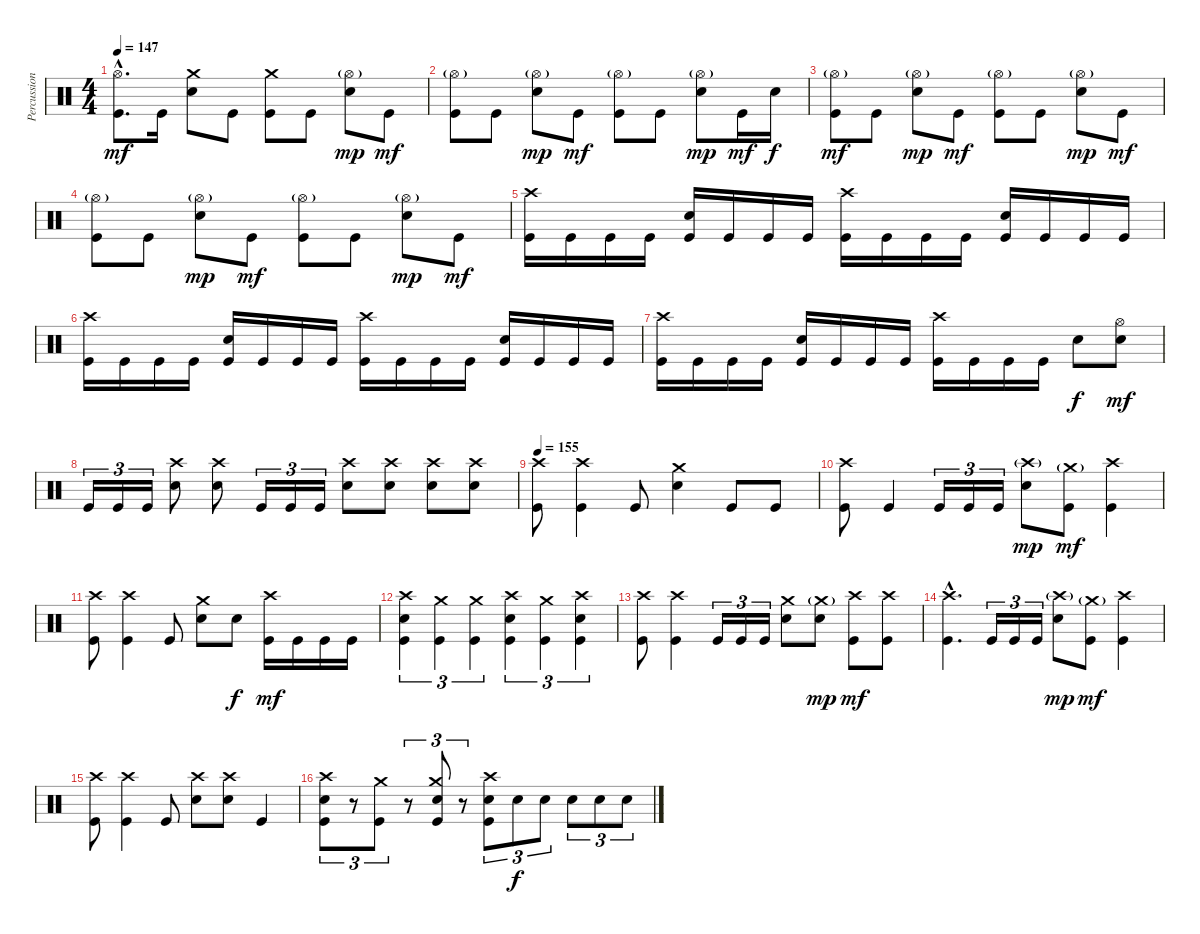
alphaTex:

\track ("Percussion" "Percussion") {instrument percussion}
\staff {score}
\articulation defaults
\ts (4 4)
\tempo 147
\clef neutral
\ks c
("Hi-Hat (open)"{hac} "Kick (hit)"{hac}).8{d dy mf} "Kick (hit)".16 ("Crash medium (hit)" "Electric Snare (hit)").8 "Kick (hit)".8 ("Crash medium (hit)" "Kick (hit)").8 "Kick (hit)".8 ("Hi-Hat (open)"{g} "Electric Snare (hit)").8{dy mp} "Kick (hit)".8{dy mf} |
("Hi-Hat (open)"{g} "Kick (hit)").8 "Kick (hit)".8 ("Hi-Hat (open)"{g} "Electric Snare (hit)").8{dy mp} "Kick (hit)".8{dy mf} ("Hi-Hat (open)"{g} "Kick (hit)").8 "Kick (hit)".8 ("Hi-Hat (open)"{g} "Electric Snare (hit)").8{dy mp} "Kick (hit)".16{dy mf} "Electric Snare (hit)".16{dy f} |
("Hi-Hat (open)"{g} "Kick (hit)").8{dy mf} "Kick (hit)".8 ("Hi-Hat (open)"{g} "Electric Snare (hit)").8{dy mp} "Kick (hit)".8{dy mf} ("Hi-Hat (open)"{g} "Kick (hit)").8 "Kick (hit)".8 ("Hi-Hat (open)"{g} "Electric Snare (hit)").8{dy mp} "Kick (hit)".8{dy mf} |
("Hi-Hat (open)"{g} "Kick (hit)").8 "Kick (hit)".8 ("Hi-Hat (open)"{g} "Electric Snare (hit)").8{dy mp} "Kick (hit)".8{dy mf} ("Hi-Hat (open)"{g} "Kick (hit)").8 "Kick (hit)".8 ("Hi-Hat (open)"{g} "Electric Snare (hit)").8{dy mp} "Kick (hit)".8{dy mf} |
("Crash high (hit)" "Kick (hit)").16 "Kick (hit)".16 "Kick (hit)".16 "Kick (hit)".16 ("Electric Snare (hit)" "Kick (hit)").16 "Kick (hit)".16 "Kick (hit)".16 "Kick (hit)".16 ("Crash high (hit)" "Kick (hit)").16 "Kick (hit)".16 "Kick (hit)".16 "Kick (hit)".16 ("Electric Snare (hit)" "Kick (hit)").16 "Kick (hit)".16 "Kick (hit)".16 "Kick (hit)".16 |
("Crash high (hit)" "Kick (hit)").16 "Kick (hit)".16 "Kick (hit)".16 "Kick (hit)".16 ("Electric Snare (hit)" "Kick (hit)").16 "Kick (hit)".16 "Kick (hit)".16 "Kick (hit)".16 ("Crash high (hit)" "Kick (hit)").16 "Kick (hit)".16 "Kick (hit)".16 "Kick (hit)".16 ("Electric Snare (hit)" "Kick (hit)").16 "Kick (hit)".16 "Kick (hit)".16 "Kick (hit)".16 |
("Crash high (hit)" "Kick (hit)").16 "Kick (hit)".16 "Kick (hit)".16 "Kick (hit)".16 ("Electric Snare (hit)" "Kick (hit)").16 "Kick (hit)".16 "Kick (hit)".16 "Kick (hit)".16 ("Crash high (hit)" "Kick (hit)").16 "Kick (hit)".16 "Kick (hit)".16 "Kick (hit)".16 "Electric Snare (hit)".8{dy f} ("Hi-Hat (open)" "Electric Snare (hit)").8{dy mf} |
"Kick (hit)".16{tu (3 2)} "Kick (hit)".16{tu (3 2)} "Kick (hit)".16{tu (3 2)} ("Crash high (hit)" "Electric Snare (hit)").8 ("Crash high (hit)" "Electric Snare (hit)").8 "Kick (hit)".16{tu (3 2)} "Kick (hit)".16{tu (3 2)} "Kick (hit)".16{tu (3 2)} ("Crash high (hit)" "Electric Snare (hit)").8 ("Crash high (hit)" "Electric Snare (hit)").8 ("Crash high (hit)" "Electric Snare (hit)").8 ("Crash high (hit)" "Electric Snare (hit)").8 |
\tempo 155
("Crash high (hit)" "Kick (hit)").8 ("Crash high (hit)" "Kick (hit)").4 "Kick (hit)".8 ("Crash medium (hit)" "Electric Snare (hit)").4 "Kick (hit)".8 "Kick (hit)".8 |
("Crash high (hit)" "Kick (hit)").8 "Kick (hit)".4 "Kick (hit)".16{tu (3 2)} "Kick (hit)".16{tu (3 2)} "Kick (hit)".16{tu (3 2)} ("Crash high (hit)"{g} "Electric Snare (hit)").8{dy mp} ("Crash medium (hit)"{g} "Kick (hit)").8{dy mf} ("Crash high (hit)" "Kick (hit)").4 |
("Crash high (hit)" "Kick (hit)").8 ("Crash high (hit)" "Kick (hit)").4 "Kick (hit)".8 ("Crash medium (hit)" "Electric Snare (hit)").8 "Electric Snare (hit)".8{dy f} ("Crash high (hit)" "Kick (hit)").16{dy mf} "Kick (hit)".16 "Kick (hit)".16 "Kick (hit)".16 |
("Crash high (hit)" "Electric Snare (hit)" "Kick (hit)").4{tu (3 2)} ("Crash medium (hit)" "Kick (hit)").4{tu (3 2)} ("Crash medium (hit)" "Kick (hit)").4{tu (3 2)} ("Crash high (hit)" "Electric Snare (hit)" "Kick (hit)").4{tu (3 2)} ("Crash medium (hit)" "Kick (hit)").4{tu (3 2)} ("Crash high (hit)" "Electric Snare (hit)" "Kick (hit)").4{tu (3 2)} |
("Crash high (hit)" "Kick (hit)").8 ("Crash high (hit)" "Kick (hit)").4 "Kick (hit)".16{tu (3 2)} "Kick (hit)".16{tu (3 2)} "Kick (hit)".16{tu (3 2)} ("Crash medium (hit)" "Electric Snare (hit)").8 ("Crash medium (hit)"{g} "Electric Snare (hit)").8{dy mp} ("Crash high (hit)" "Kick (hit)").8{dy mf} ("Crash high (hit)" "Kick (hit)").8 |
("Crash high (hit)"{hac} "Kick (hit)"{hac}).4{d} "Kick (hit)".16{tu (3 2)} "Kick (hit)".16{tu (3 2)} "Kick (hit)".16{tu (3 2)} ("Crash high (hit)"{g} "Electric Snare (hit)").8{dy mp} ("Crash medium (hit)"{g} "Kick (hit)").8{dy mf} ("Crash high (hit)" "Kick (hit)").4 |
("Crash high (hit)" "Kick (hit)").8 ("Crash high (hit)" "Kick (hit)").4 "Kick (hit)".8 ("Crash high (hit)" "Electric Snare (hit)").8 ("Crash high (hit)" "Electric Snare (hit)").8 "Kick (hit)".4 |
("Crash high (hit)" "Electric Snare (hit)" "Kick (hit)").8{tu (3 2)} r.8{tu (3 2)} ("Crash medium (hit)" "Kick (hit)").8{tu (3 2)} r.8{tu (3 2)} ("Crash medium (hit)" "Electric Snare (hit)" "Kick (hit)").8{tu (3 2)} r.8{tu (3 2)} ("Crash high (hit)" "Electric Snare (hit)" "Kick (hit)").8{tu (3 2)} "Electric Snare (hit)".8{tu (3 2) dy f} "Electric Snare (hit)".8{tu (3 2)} "Electric Snare (hit)".8{tu (3 2)} "Electric Snare (hit)".8{tu (3 2)} "Electric Snare (hit)".8{tu (3 2)}
